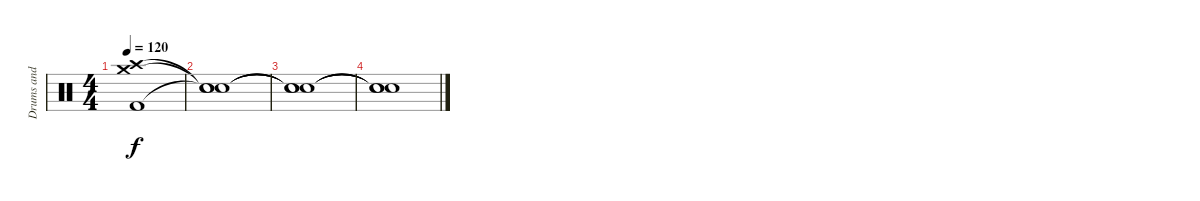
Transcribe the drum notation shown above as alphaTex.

\track ("Drums and Percussion" "Drums and ") {instrument percussion}
\staff {score}
\articulation defaults
\ts (4 4)
\tempo 120
\clef neutral
\ks c
("Crash medium (hit)" "Crash high (hit)" "Kick (hit) 2").1{dy f volume 0} |
("Snare (hit)"{t} "Snare (hit)"{t} "Snare (hit)"{t}).1 |
("Snare (hit)"{t} "Snare (hit)"{t} "Snare (hit)"{t}).1 |
("Snare (hit)"{t} "Snare (hit)"{t} "Snare (hit)"{t}).1
